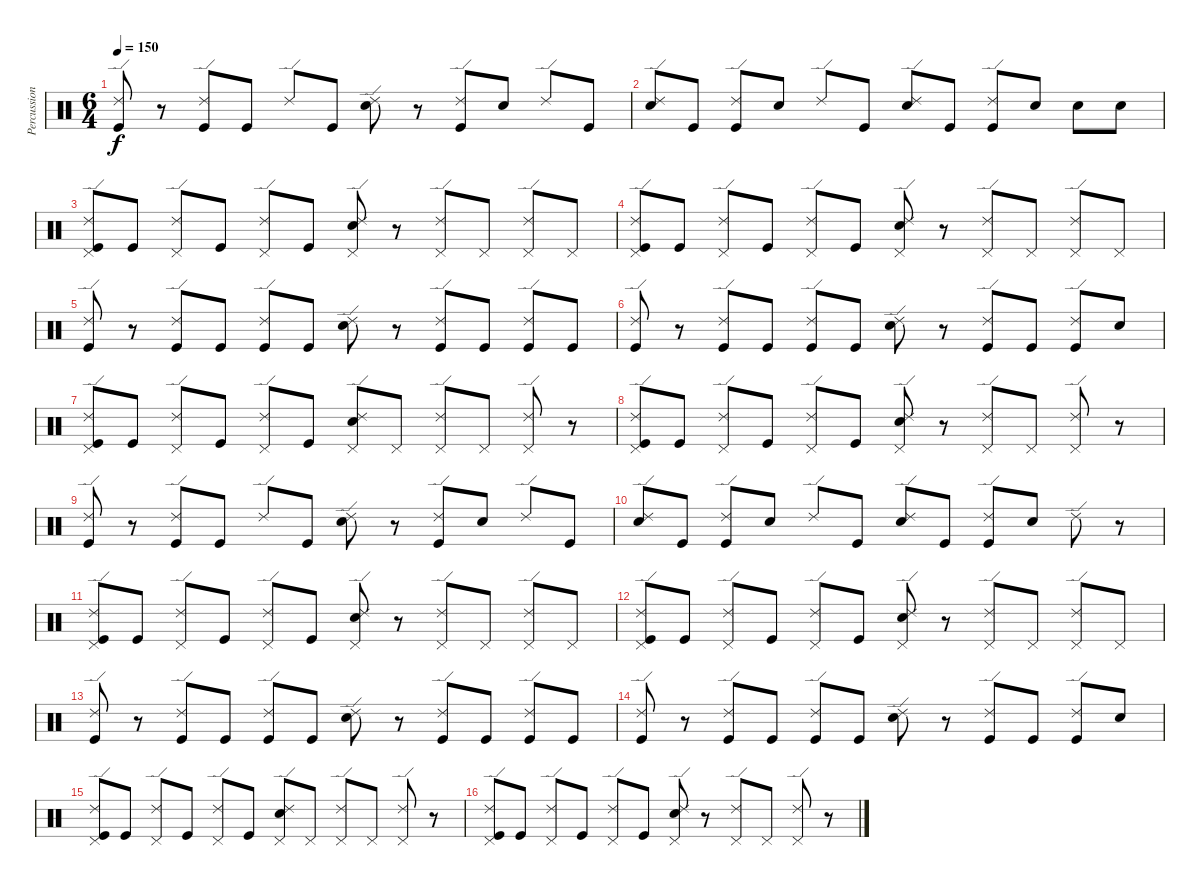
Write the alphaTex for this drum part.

\track ("Percussion" "Percussion") {instrument percussion}
\staff {score}
\articulation defaults
\ts (6 4)
\tempo 150
\clef neutral
\ks c
("Ride (edge) 2" "Kick (hit)").8{dy f} r.8 ("Ride (edge) 2" "Kick (hit)").8 "Kick (hit)".8 "Ride (edge) 2".8 "Kick (hit)".8 ("Ride (edge) 2" "Snare (hit) 2").8 r.8 ("Ride (edge) 2" "Kick (hit)").8 "Snare (hit) 2".8 "Ride (edge) 2".8 "Kick (hit)".8 |
("Ride (edge) 2" "Snare (hit) 2").8 "Kick (hit)".8 ("Ride (edge) 2" "Kick (hit)").8 "Snare (hit) 2".8 "Ride (edge) 2".8 "Kick (hit)".8 ("Ride (edge) 2" "Snare (hit) 2").8 "Kick (hit)".8 ("Ride (edge) 2" "Kick (hit)").8 "Snare (hit) 2".8 "Snare (hit) 2".8 "Snare (hit) 2".8 |
("Ride (edge) 2" "Pedal Hi-Hat (hit)" "Kick (hit)").8 "Kick (hit)".8 ("Ride (edge) 2" "Pedal Hi-Hat (hit)").8 "Kick (hit)".8 ("Ride (edge) 2" "Pedal Hi-Hat (hit)").8 "Kick (hit)".8 ("Ride (edge) 2" "Pedal Hi-Hat (hit)" "Snare (hit) 2").8 r.8 ("Ride (edge) 2" "Pedal Hi-Hat (hit)").8 "Pedal Hi-Hat (hit)".8 ("Ride (edge) 2" "Pedal Hi-Hat (hit)").8 "Pedal Hi-Hat (hit)".8 |
("Ride (edge) 2" "Pedal Hi-Hat (hit)" "Kick (hit)").8 "Kick (hit)".8 ("Ride (edge) 2" "Pedal Hi-Hat (hit)").8 "Kick (hit)".8 ("Ride (edge) 2" "Pedal Hi-Hat (hit)").8 "Kick (hit)".8 ("Ride (edge) 2" "Pedal Hi-Hat (hit)" "Snare (hit) 2").8 r.8 ("Ride (edge) 2" "Pedal Hi-Hat (hit)").8 "Pedal Hi-Hat (hit)".8 ("Ride (edge) 2" "Pedal Hi-Hat (hit)").8 "Pedal Hi-Hat (hit)".8 |
("Ride (edge) 2" "Kick (hit)").8 r.8 ("Ride (edge) 2" "Kick (hit)").8 "Kick (hit)".8 ("Ride (edge) 2" "Kick (hit)").8 "Kick (hit)".8 ("Ride (edge) 2" "Snare (hit) 2").8 r.8 ("Ride (edge) 2" "Kick (hit)").8 "Kick (hit)".8 ("Ride (edge) 2" "Kick (hit)").8 "Kick (hit)".8 |
("Ride (edge) 2" "Kick (hit)").8 r.8 ("Ride (edge) 2" "Kick (hit)").8 "Kick (hit)".8 ("Ride (edge) 2" "Kick (hit)").8 "Kick (hit)".8 ("Ride (edge) 2" "Snare (hit) 2").8 r.8 ("Ride (edge) 2" "Kick (hit)").8 "Kick (hit)".8 ("Ride (edge) 2" "Kick (hit)").8 "Snare (hit) 2".8 |
("Ride (edge) 2" "Pedal Hi-Hat (hit)" "Kick (hit)").8 "Kick (hit)".8 ("Ride (edge) 2" "Pedal Hi-Hat (hit)").8 "Kick (hit)".8 ("Ride (edge) 2" "Pedal Hi-Hat (hit)").8 "Kick (hit)".8 ("Ride (edge) 2" "Pedal Hi-Hat (hit)" "Snare (hit) 2").8 "Pedal Hi-Hat (hit)".8 ("Ride (edge) 2" "Pedal Hi-Hat (hit)").8 "Pedal Hi-Hat (hit)".8 ("Ride (edge) 2" "Pedal Hi-Hat (hit)").8 r.8 |
("Ride (edge) 2" "Pedal Hi-Hat (hit)" "Kick (hit)").8 "Kick (hit)".8 ("Ride (edge) 2" "Pedal Hi-Hat (hit)").8 "Kick (hit)".8 ("Ride (edge) 2" "Pedal Hi-Hat (hit)").8 "Kick (hit)".8 ("Ride (edge) 2" "Pedal Hi-Hat (hit)" "Snare (hit) 2").8 r.8 ("Ride (edge) 2" "Pedal Hi-Hat (hit)").8 "Pedal Hi-Hat (hit)".8 ("Ride (edge) 2" "Pedal Hi-Hat (hit)").8 r.8 |
("Ride (edge) 2" "Kick (hit)").8 r.8 ("Ride (edge) 2" "Kick (hit)").8 "Kick (hit)".8 "Ride (edge) 2".8 "Kick (hit)".8 ("Ride (edge) 2" "Snare (hit) 2").8 r.8 ("Ride (edge) 2" "Kick (hit)").8 "Snare (hit) 2".8 "Ride (edge) 2".8 "Kick (hit)".8 |
("Ride (edge) 2" "Snare (hit) 2").8 "Kick (hit)".8 ("Ride (edge) 2" "Kick (hit)").8 "Snare (hit) 2".8 "Ride (edge) 2".8 "Kick (hit)".8 ("Ride (edge) 2" "Snare (hit) 2").8 "Kick (hit)".8 ("Ride (edge) 2" "Kick (hit)").8 "Snare (hit) 2".8 "Ride (edge) 2".8 r.8 |
("Ride (edge) 2" "Pedal Hi-Hat (hit)" "Kick (hit)").8 "Kick (hit)".8 ("Ride (edge) 2" "Pedal Hi-Hat (hit)").8 "Kick (hit)".8 ("Ride (edge) 2" "Pedal Hi-Hat (hit)").8 "Kick (hit)".8 ("Ride (edge) 2" "Pedal Hi-Hat (hit)" "Snare (hit) 2").8 r.8 ("Ride (edge) 2" "Pedal Hi-Hat (hit)").8 "Pedal Hi-Hat (hit)".8 ("Ride (edge) 2" "Pedal Hi-Hat (hit)").8 "Pedal Hi-Hat (hit)".8 |
("Ride (edge) 2" "Pedal Hi-Hat (hit)" "Kick (hit)").8 "Kick (hit)".8 ("Ride (edge) 2" "Pedal Hi-Hat (hit)").8 "Kick (hit)".8 ("Ride (edge) 2" "Pedal Hi-Hat (hit)").8 "Kick (hit)".8 ("Ride (edge) 2" "Pedal Hi-Hat (hit)" "Snare (hit) 2").8 r.8 ("Ride (edge) 2" "Pedal Hi-Hat (hit)").8 "Pedal Hi-Hat (hit)".8 ("Ride (edge) 2" "Pedal Hi-Hat (hit)").8 "Pedal Hi-Hat (hit)".8 |
("Ride (edge) 2" "Kick (hit)").8 r.8 ("Ride (edge) 2" "Kick (hit)").8 "Kick (hit)".8 ("Ride (edge) 2" "Kick (hit)").8 "Kick (hit)".8 ("Ride (edge) 2" "Snare (hit) 2").8 r.8 ("Ride (edge) 2" "Kick (hit)").8 "Kick (hit)".8 ("Ride (edge) 2" "Kick (hit)").8 "Kick (hit)".8 |
("Ride (edge) 2" "Kick (hit)").8 r.8 ("Ride (edge) 2" "Kick (hit)").8 "Kick (hit)".8 ("Ride (edge) 2" "Kick (hit)").8 "Kick (hit)".8 ("Ride (edge) 2" "Snare (hit) 2").8 r.8 ("Ride (edge) 2" "Kick (hit)").8 "Kick (hit)".8 ("Ride (edge) 2" "Kick (hit)").8 "Snare (hit) 2".8 |
("Ride (edge) 2" "Pedal Hi-Hat (hit)" "Kick (hit)").8 "Kick (hit)".8 ("Ride (edge) 2" "Pedal Hi-Hat (hit)").8 "Kick (hit)".8 ("Ride (edge) 2" "Pedal Hi-Hat (hit)").8 "Kick (hit)".8 ("Ride (edge) 2" "Pedal Hi-Hat (hit)" "Snare (hit) 2").8 "Pedal Hi-Hat (hit)".8 ("Ride (edge) 2" "Pedal Hi-Hat (hit)").8 "Pedal Hi-Hat (hit)".8 ("Ride (edge) 2" "Pedal Hi-Hat (hit)").8 r.8 |
("Ride (edge) 2" "Pedal Hi-Hat (hit)" "Kick (hit)").8 "Kick (hit)".8 ("Ride (edge) 2" "Pedal Hi-Hat (hit)").8 "Kick (hit)".8 ("Ride (edge) 2" "Pedal Hi-Hat (hit)").8 "Kick (hit)".8 ("Ride (edge) 2" "Pedal Hi-Hat (hit)" "Snare (hit) 2").8 r.8 ("Ride (edge) 2" "Pedal Hi-Hat (hit)").8 "Pedal Hi-Hat (hit)".8 ("Ride (edge) 2" "Pedal Hi-Hat (hit)").8 r.8
